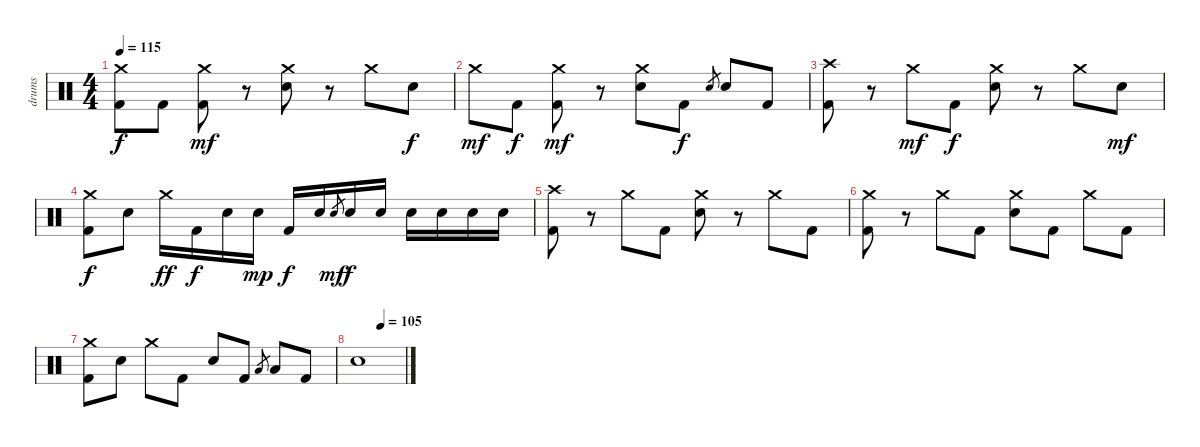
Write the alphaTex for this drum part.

\track ("drums" "drums") {instrument percussion}
\staff {score}
\articulation defaults
\ts (4 4)
\tempo 115
\clef neutral
\ks c
("Crash medium (hit)" "Kick (hit) 2").8{dy f} "Kick (hit) 2".8 ("Crash medium (hit)" "Kick (hit) 2").8{dy mf} r.8 ("Crash medium (hit)" "Electric Snare (hit)").8 r.8 "Crash medium (hit)".8 "Electric Snare (hit)".8{dy f} |
"Crash medium (hit)".8{dy mf} "Kick (hit) 2".8{dy f} ("Crash medium (hit)" "Kick (hit) 2").8{dy mf} r.8 ("Crash medium (hit)" "Electric Snare (hit)").8 "Kick (hit) 2".8{dy f} "Electric Snare (hit)".8{gr} "Electric Snare (hit)".8 "Kick (hit) 2".8 |
("Crash high (hit)" "Kick (hit) 2").8 r.8 "Crash medium (hit)".8{dy mf} "Kick (hit) 2".8{dy f} ("Crash medium (hit)" "Electric Snare (hit)").8 r.8 "Crash medium (hit)".8 "Electric Snare (hit)".8{dy mf} |
("Crash medium (hit)" "Kick (hit) 2").8{dy f} "Electric Snare (hit)".8 "Crash medium (hit)".16{dy ff} "Kick (hit) 2".16{dy f} "Electric Snare (hit)".16 "Electric Snare (hit)".16{dy mp} "Kick (hit) 2".16{dy f} "Electric Snare (hit)".16 "Electric Snare (hit)".8{gr dy mf} "Electric Snare (hit)".16{dy f} "Electric Snare (hit)".16 "Electric Snare (hit)".16 "Electric Snare (hit)".16 "Electric Snare (hit)".16 "Electric Snare (hit)".16 |
("Crash high (hit)" "Kick (hit) 2").8 r.8 "Crash medium (hit)".8 "Kick (hit) 2".8 ("Crash medium (hit)" "Electric Snare (hit)").8 r.8 "Crash medium (hit)".8 "Kick (hit) 2".8 |
("Crash medium (hit)" "Kick (hit) 2").8 r.8 "Crash medium (hit)".8 "Kick (hit) 2".8 ("Crash medium (hit)" "Electric Snare (hit)").8 "Kick (hit) 2".8 "Crash medium (hit)".8 "Kick (hit) 2".8 |
("Crash medium (hit)" "Kick (hit) 2").8 "Electric Snare (hit)".8 "Crash medium (hit)".8 "Kick (hit) 2".8 "Electric Snare (hit)".8 "Kick (hit) 2".8 "Low Tom (hit)".8{gr} "Low Tom (hit)".8 "Kick (hit) 2".8 |
\tempo (105 0.5)
"Electric Snare (hit)".1
